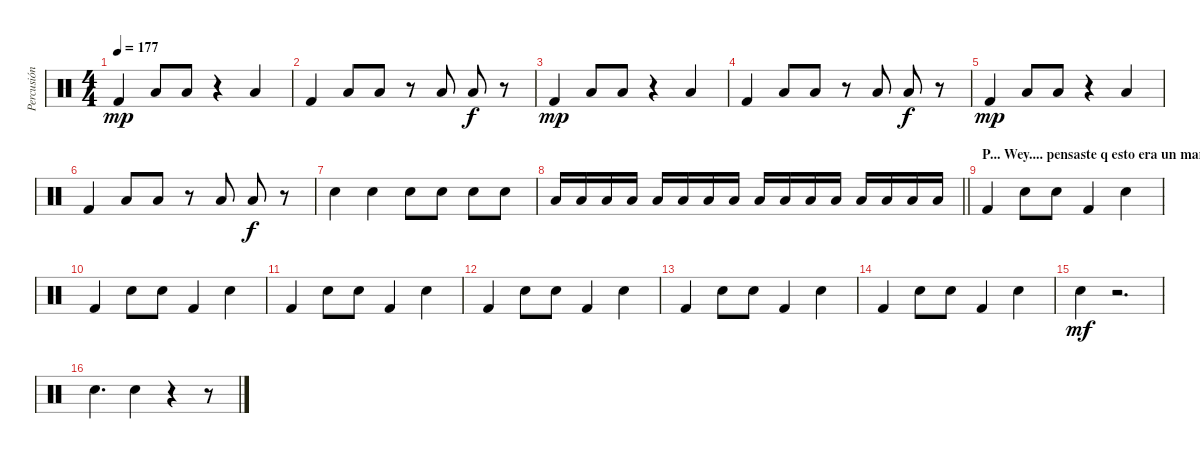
\track ("Percusión" "Percusión") {instrument percussion}
\staff {score}
\articulation defaults
\ts (4 4)
\tempo 177
\clef neutral
\ks c "Kick (hit) 2".4{dy mp} "Low Floor Tom (hit)".8 "Low Floor Tom (hit)".8
r.4 "Low Floor Tom (hit)".4 |
"Kick (hit) 2".4 "Low Floor Tom (hit)".8 "Low Floor Tom (hit)".8 r.8 "Low Floor Tom (hit)".8 "Low Floor Tom (hit)".8{dy f} r.8 |
"Kick (hit) 2".4{dy mp} "Low Floor Tom (hit)".8 "Low Floor Tom (hit)".8 r.4 "Low Floor Tom (hit)".4 |
"Kick (hit) 2".4 "Low Floor Tom (hit)".8 "Low Floor Tom (hit)".8 r.8 "Low Floor Tom (hit)".8 "Low Floor Tom (hit)".8{dy f} r.8 |
"Kick (hit) 2".4{dy mp} "Low Floor Tom (hit)".8 "Low Floor Tom (hit)".8 r.4 "Low Floor Tom (hit)".4 |
"Kick (hit) 2".4 "Low Floor Tom (hit)".8 "Low Floor Tom (hit)".8 r.8 "Low Floor Tom (hit)".8 "Low Floor Tom (hit)".8{dy f} r.8 |
"Snare (hit) 2".4 "Snare (hit) 2".4 "Snare (hit) 2".8 "Snare (hit) 2".8 "Snare (hit) 2".8 "Snare (hit) 2".8 |
\barLineRight lightlight "Low Tom (hit)".16{volume 4} "Low Tom (hit)".16{volume 16 balance 15} "Low Tom (hit)".16 "Low Tom (hit)".16 "Low Tom (hit)".16 "Low Tom (hit)".16 "Low Tom (hit)".16 "Low Tom (hit)".16 "Low Tom (hit)".16 "Low Tom (hit)".16 "Low Tom (hit)".16 "Low Tom (hit)".16 "Low Tom (hit)".16 "Low Tom (hit)".16 "Low Tom (hit)".16 "Low Tom (hit)".16
|
\section ("" "P... Wey.... pensaste q esto era un mamey....")
"Kick (hit) 2".4{balance 8} "Electric Snare (hit)".8 "Electric Snare (hit)".8 "Kick (hit) 2".4 "Electric Snare (hit)".4 |
"Kick (hit) 2".4 "Electric Snare (hit)".8 "Electric Snare (hit)".8 "Kick (hit) 2".4 "Electric Snare (hit)".4 |
"Kick (hit) 2".4 "Electric Snare (hit)".8 "Electric Snare (hit)".8 "Kick (hit) 2".4 "Electric Snare (hit)".4 |
"Kick (hit) 2".4 "Electric Snare (hit)".8 "Electric Snare (hit)".8 "Kick (hit) 2".4 "Electric Snare (hit)".4 |
"Kick (hit) 2".4 "Electric Snare (hit)".8 "Electric Snare (hit)".8 "Kick (hit) 2".4 "Electric Snare (hit)".4 |
"Kick (hit) 2".4 "Electric Snare (hit)".8 "Electric Snare (hit)".8 "Kick (hit) 2".4 "Electric Snare (hit)".4 |
"Snare (hit) 2".4{dy mf} r.2{d} |
"Snare (hit) 2".4{d} "Snare (hit) 2".4 r.4 r.8
